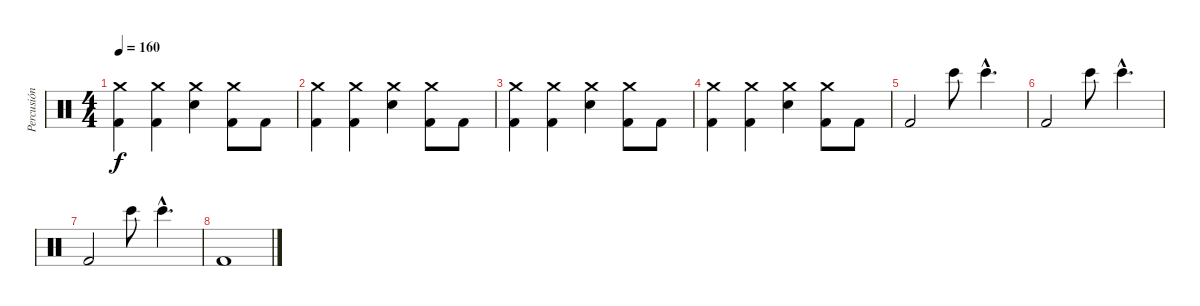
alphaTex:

\track ("Percusión" "Percusión") {instrument percussion}
\staff {score}
\articulation defaults
\ts (4 4)
\tempo 160
\clef neutral
\ks c
("Crash medium (hit)" "Kick (hit) 2").4{dy f} ("Crash medium (hit)" "Kick (hit) 2").4 ("Crash medium (hit)" "Snare (hit) 2").4 ("Crash medium (hit)" "Kick (hit) 2").8 "Kick (hit) 2".8 |
("Crash medium (hit)" "Kick (hit) 2").4 ("Crash medium (hit)" "Kick (hit) 2").4 ("Crash medium (hit)" "Snare (hit) 2").4 ("Crash medium (hit)" "Kick (hit) 2").8 "Kick (hit) 2".8 |
("Crash medium (hit)" "Kick (hit) 2").4 ("Crash medium (hit)" "Kick (hit) 2").4 ("Crash medium (hit)" "Snare (hit) 2").4 ("Crash medium (hit)" "Kick (hit) 2").8 "Kick (hit) 2".8 |
("Crash medium (hit)" "Kick (hit) 2").4 ("Crash medium (hit)" "Kick (hit) 2").4 ("Crash medium (hit)" "Snare (hit) 2").4 ("Crash medium (hit)" "Kick (hit) 2").8 "Kick (hit) 2".8 |
"Kick (hit) 2".2 "Bongo High (hit)".8 "Bongo High (hit)"{hac}.4{d} |
"Kick (hit) 2".2 "Bongo High (hit)".8 "Bongo High (hit)"{hac}.4{d} |
"Kick (hit) 2".2 "Bongo High (hit)".8 "Bongo High (hit)"{hac}.4{d} |
"Kick (hit) 2".1
